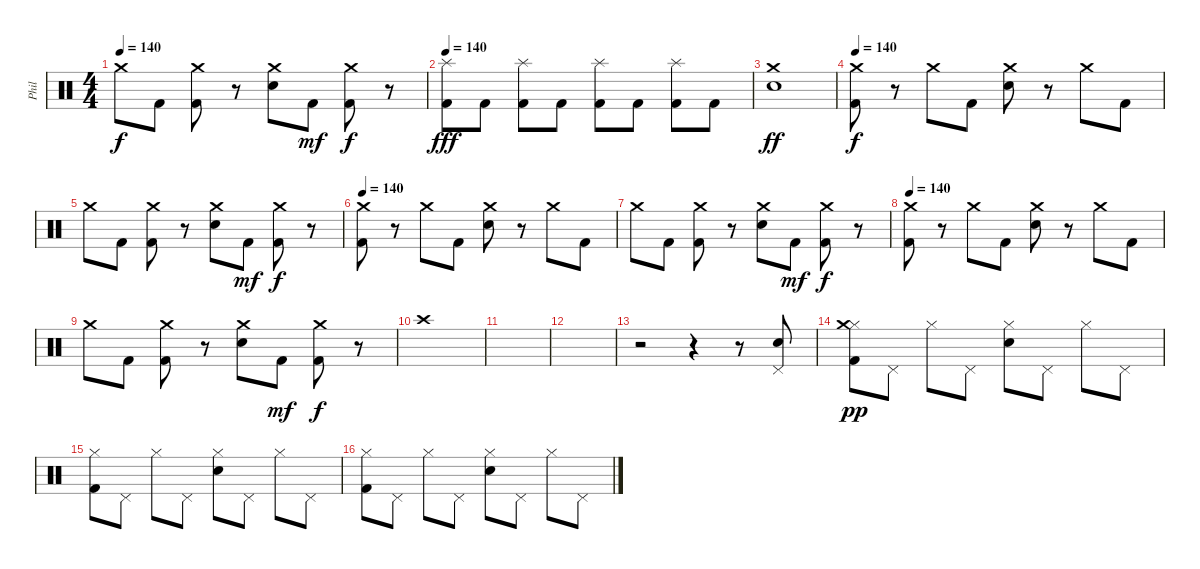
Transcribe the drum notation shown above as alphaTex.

\track ("Phil" "Phil") {instrument percussion}
\staff {score}
\articulation defaults
\ts (4 4)
\tempo 140
\clef neutral
\ks c "Crash medium (hit)".8{dy f} "Kick (hit) 2".8
("Crash medium (hit)" "Kick (hit) 2").8 r.8 ("Crash medium (hit)" "Snare (hit) 2").8 "Kick (hit) 2".8{dy mf} ("Crash medium (hit)" "Kick (hit) 2").8{dy f} r.8 |
\tempo 140
("Splash (hit)" "Kick (hit) 2").8{dy fff} "Kick (hit) 2".8 ("Splash (hit)" "Kick (hit) 2").8 "Kick (hit) 2".8 ("Splash (hit)" "Kick (hit) 2").8 "Kick (hit) 2".8 ("Splash (hit)" "Kick (hit) 2").8 "Kick (hit) 2".8 |
("Crash medium (hit)" "Snare (hit) 2").1{dy ff} |
\tempo 140
("Crash medium (hit)" "Kick (hit) 2").8{dy f} r.8 "Crash medium (hit)".8 "Kick (hit) 2".8 ("Crash medium (hit)" "Snare (hit) 2").8 r.8 "Crash medium (hit)".8 "Kick (hit) 2".8 |
"Crash medium (hit)".8 "Kick (hit) 2".8 ("Crash medium (hit)" "Kick (hit) 2").8 r.8 ("Crash medium (hit)" "Snare (hit) 2").8 "Kick (hit) 2".8{dy mf} ("Crash medium (hit)" "Kick (hit) 2").8{dy f} r.8 |
\tempo 140
("Crash medium (hit)" "Kick (hit) 2").8 r.8 "Crash medium (hit)".8 "Kick (hit) 2".8 ("Crash medium (hit)" "Snare (hit) 2").8 r.8 "Crash medium (hit)".8 "Kick (hit) 2".8 |
"Crash medium (hit)".8 "Kick (hit) 2".8 ("Crash medium (hit)" "Kick (hit) 2").8 r.8 ("Crash medium (hit)" "Snare (hit) 2").8 "Kick (hit) 2".8{dy mf} ("Crash medium (hit)" "Kick (hit) 2").8{dy f} r.8 |
\tempo 140
("Crash medium (hit)" "Kick (hit) 2").8 r.8 "Crash medium (hit)".8 "Kick (hit) 2".8 ("Crash medium (hit)" "Snare (hit) 2").8 r.8 "Crash medium (hit)".8 "Kick (hit) 2".8 |
"Crash medium (hit)".8 "Kick (hit) 2".8 ("Crash medium (hit)" "Kick (hit) 2").8 r.8 ("Crash medium (hit)" "Snare (hit) 2").8 "Kick (hit) 2".8{dy mf} ("Crash medium (hit)" "Kick (hit) 2").8{dy f} r.8 |
"Crash high (hit)".1 |
|
|
r.2 r.4 r.8 ("Pedal Hi-Hat (hit)" "Snare (hit) 2").8 |
("Hi-Hat (closed)" "Crash medium (hit)" "Kick (hit) 2").8{dy pp} "Pedal Hi-Hat (hit)".8 "Hi-Hat (closed)".8 "Pedal Hi-Hat (hit)".8 ("Hi-Hat (closed)" "Snare (hit) 2").8 "Pedal Hi-Hat (hit)".8 "Hi-Hat (closed)".8 "Pedal Hi-Hat (hit)".8 |
("Hi-Hat (closed)" "Kick (hit) 2").8 "Pedal Hi-Hat (hit)".8 "Hi-Hat (closed)".8 "Pedal Hi-Hat (hit)".8 ("Hi-Hat (closed)" "Snare (hit) 2").8 "Pedal Hi-Hat (hit)".8 "Hi-Hat (closed)".8 "Pedal Hi-Hat (hit)".8 |
("Hi-Hat (closed)" "Kick (hit) 2").8 "Pedal Hi-Hat (hit)".8 "Hi-Hat (closed)".8 "Pedal Hi-Hat (hit)".8 ("Hi-Hat (closed)" "Snare (hit) 2").8 "Pedal Hi-Hat (hit)".8 "Hi-Hat (closed)".8 "Pedal Hi-Hat (hit)".8
